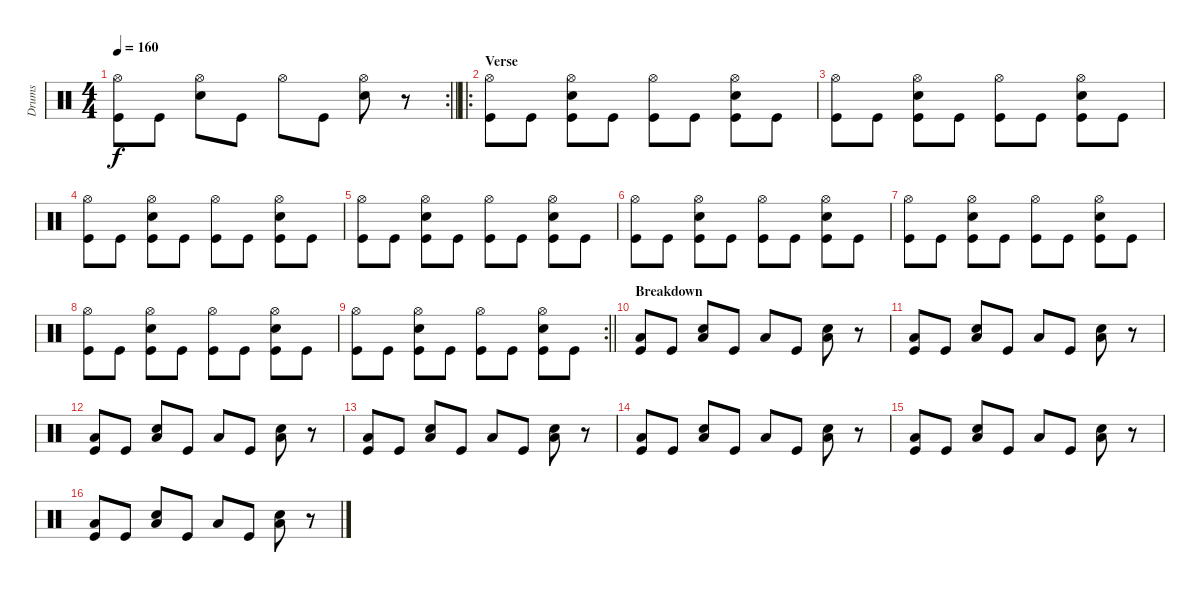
\track ("Drums" "Drums") {instrument percussion}
\staff {score}
\articulation defaults
\rc 2
\ts (4 4)
\tempo 160
\clef neutral
\barLineRight lightlight
\ks c
("Hi-Hat (open)" "Kick (hit)").8{dy f} "Kick (hit)".8 ("Hi-Hat (open)" "Snare (hit) 2").8 "Kick (hit)".8 "Hi-Hat (open)".8 "Kick (hit)".8 ("Hi-Hat (open)" "Snare (hit) 2").8 r.8 |
\ro
\section ("" "Verse")
("Hi-Hat (open)" "Kick (hit)").8 "Kick (hit)".8 ("Hi-Hat (open)" "Snare (hit) 2" "Kick (hit)").8 "Kick (hit)".8 ("Hi-Hat (open)" "Kick (hit)").8 "Kick (hit)".8 ("Hi-Hat (open)" "Snare (hit) 2" "Kick (hit)").8 "Kick (hit)".8 |
("Hi-Hat (open)" "Kick (hit)").8 "Kick (hit)".8 ("Hi-Hat (open)" "Snare (hit) 2" "Kick (hit)").8 "Kick (hit)".8 ("Hi-Hat (open)" "Kick (hit)").8 "Kick (hit)".8 ("Hi-Hat (open)" "Snare (hit) 2" "Kick (hit)").8 "Kick (hit)".8 |
("Hi-Hat (open)" "Kick (hit)").8 "Kick (hit)".8 ("Hi-Hat (open)" "Snare (hit) 2" "Kick (hit)").8 "Kick (hit)".8 ("Hi-Hat (open)" "Kick (hit)").8 "Kick (hit)".8 ("Hi-Hat (open)" "Snare (hit) 2" "Kick (hit)").8 "Kick (hit)".8 |
("Hi-Hat (open)" "Kick (hit)").8 "Kick (hit)".8 ("Hi-Hat (open)" "Snare (hit) 2" "Kick (hit)").8 "Kick (hit)".8 ("Hi-Hat (open)" "Kick (hit)").8 "Kick (hit)".8 ("Hi-Hat (open)" "Snare (hit) 2" "Kick (hit)").8 "Kick (hit)".8 |
("Hi-Hat (open)" "Kick (hit)").8 "Kick (hit)".8 ("Hi-Hat (open)" "Snare (hit) 2" "Kick (hit)").8 "Kick (hit)".8 ("Hi-Hat (open)" "Kick (hit)").8 "Kick (hit)".8 ("Hi-Hat (open)" "Snare (hit) 2" "Kick (hit)").8 "Kick (hit)".8 |
("Hi-Hat (open)" "Kick (hit)").8 "Kick (hit)".8 ("Hi-Hat (open)" "Snare (hit) 2" "Kick (hit)").8 "Kick (hit)".8 ("Hi-Hat (open)" "Kick (hit)").8 "Kick (hit)".8 ("Hi-Hat (open)" "Snare (hit) 2" "Kick (hit)").8 "Kick (hit)".8 |
("Hi-Hat (open)" "Kick (hit)").8 "Kick (hit)".8 ("Hi-Hat (open)" "Snare (hit) 2" "Kick (hit)").8 "Kick (hit)".8 ("Hi-Hat (open)" "Kick (hit)").8 "Kick (hit)".8 ("Hi-Hat (open)" "Snare (hit) 2" "Kick (hit)").8 "Kick (hit)".8 |
\rc 2
\barLineRight lightlight
("Hi-Hat (open)" "Kick (hit)").8 "Kick (hit)".8 ("Hi-Hat (open)" "Snare (hit) 2" "Kick (hit)").8 "Kick (hit)".8 ("Hi-Hat (open)" "Kick (hit)").8 "Kick (hit)".8 ("Hi-Hat (open)" "Snare (hit) 2" "Kick (hit)").8 "Kick (hit)".8 |
\section ("" "Breakdown")
("Low Floor Tom (hit)" "Kick (hit)").8 "Kick (hit)".8 ("Snare (hit) 2" "Low Floor Tom (hit)").8 "Kick (hit)".8 "Low Floor Tom (hit)".8 "Kick (hit)".8 ("Snare (hit) 2" "Low Floor Tom (hit)").8 r.8 |
("Low Floor Tom (hit)" "Kick (hit)").8 "Kick (hit)".8 ("Snare (hit) 2" "Low Floor Tom (hit)").8 "Kick (hit)".8 "Low Floor Tom (hit)".8 "Kick (hit)".8 ("Snare (hit) 2" "Low Floor Tom (hit)").8 r.8 |
("Low Floor Tom (hit)" "Kick (hit)").8 "Kick (hit)".8 ("Snare (hit) 2" "Low Floor Tom (hit)").8 "Kick (hit)".8 "Low Floor Tom (hit)".8 "Kick (hit)".8 ("Snare (hit) 2" "Low Floor Tom (hit)").8 r.8 |
("Low Floor Tom (hit)" "Kick (hit)").8 "Kick (hit)".8 ("Snare (hit) 2" "Low Floor Tom (hit)").8 "Kick (hit)".8 "Low Floor Tom (hit)".8 "Kick (hit)".8 ("Snare (hit) 2" "Low Floor Tom (hit)").8 r.8 |
("Low Floor Tom (hit)" "Kick (hit)").8 "Kick (hit)".8 ("Snare (hit) 2" "Low Floor Tom (hit)").8 "Kick (hit)".8 "Low Floor Tom (hit)".8 "Kick (hit)".8 ("Snare (hit) 2" "Low Floor Tom (hit)").8 r.8 |
("Low Floor Tom (hit)" "Kick (hit)").8 "Kick (hit)".8 ("Snare (hit) 2" "Low Floor Tom (hit)").8 "Kick (hit)".8 "Low Floor Tom (hit)".8 "Kick (hit)".8 ("Snare (hit) 2" "Low Floor Tom (hit)").8 r.8 |
("Low Floor Tom (hit)" "Kick (hit)").8 "Kick (hit)".8 ("Snare (hit) 2" "Low Floor Tom (hit)").8 "Kick (hit)".8 "Low Floor Tom (hit)".8 "Kick (hit)".8 ("Snare (hit) 2" "Low Floor Tom (hit)").8 r.8
